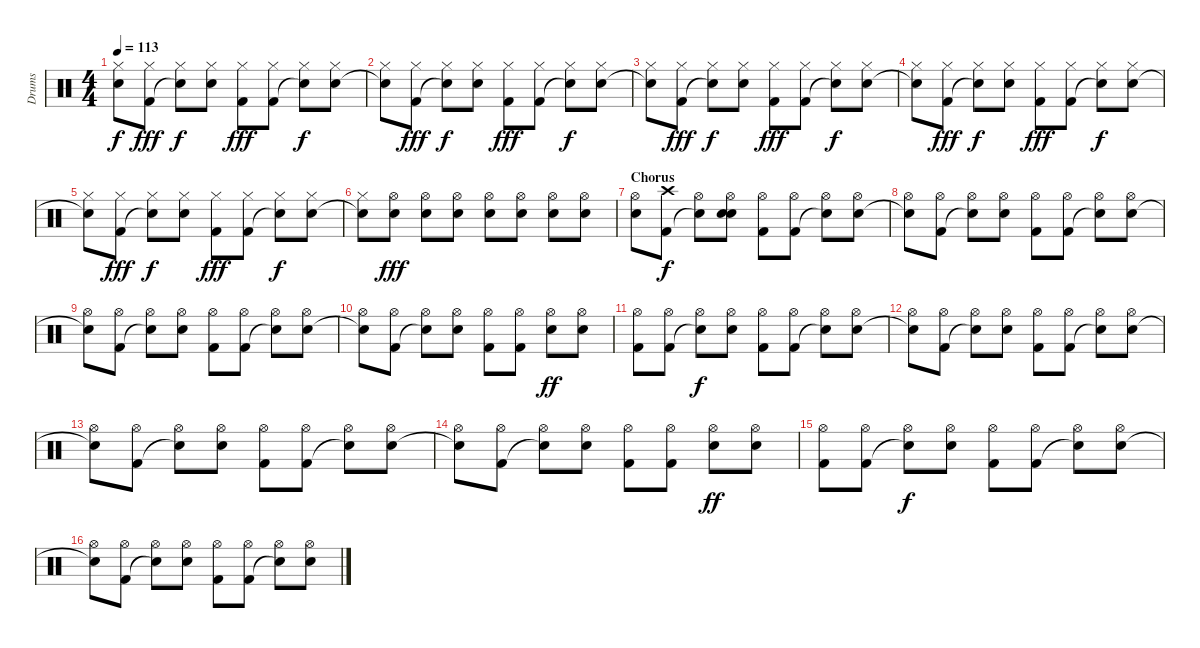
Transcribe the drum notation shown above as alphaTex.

\track ("Drums" "Drums") {instrument percussion}
\staff {score}
\articulation defaults
\ts (4 4)
\tempo 113
\clef neutral
\ks c
("Snare (hit)"{t} "Hi-Hat (closed)").8{dy f} ("Kick (hit) 2" "Hi-Hat (closed)").8{dy fff} ("Snare (hit)"{t} "Hi-Hat (closed)").8{dy f} ("Snare (hit) 2" "Hi-Hat (closed)").8 ("Kick (hit) 2" "Hi-Hat (closed)").8{dy fff} ("Kick (hit) 2" "Hi-Hat (closed)").8 ("Snare (hit)"{t} "Hi-Hat (closed)").8{dy f} ("Snare (hit) 2" "Hi-Hat (closed)").8 |
("Snare (hit)"{t} "Hi-Hat (closed)").8 ("Kick (hit) 2" "Hi-Hat (closed)").8{dy fff} ("Snare (hit)"{t} "Hi-Hat (closed)").8{dy f} ("Snare (hit) 2" "Hi-Hat (closed)").8 ("Kick (hit) 2" "Hi-Hat (closed)").8{dy fff} ("Kick (hit) 2" "Hi-Hat (closed)").8 ("Snare (hit)"{t} "Hi-Hat (closed)").8{dy f} ("Snare (hit) 2" "Hi-Hat (closed)").8 |
("Snare (hit)"{t} "Hi-Hat (closed)").8 ("Kick (hit) 2" "Hi-Hat (closed)").8{dy fff} ("Snare (hit)"{t} "Hi-Hat (closed)").8{dy f} ("Snare (hit) 2" "Hi-Hat (closed)").8 ("Kick (hit) 2" "Hi-Hat (closed)").8{dy fff} ("Kick (hit) 2" "Hi-Hat (closed)").8 ("Snare (hit)"{t} "Hi-Hat (closed)").8{dy f} ("Snare (hit) 2" "Hi-Hat (closed)").8 |
("Snare (hit)"{t} "Hi-Hat (closed)").8 ("Kick (hit) 2" "Hi-Hat (closed)").8{dy fff} ("Snare (hit)"{t} "Hi-Hat (closed)").8{dy f} ("Snare (hit) 2" "Hi-Hat (closed)").8 ("Kick (hit) 2" "Hi-Hat (closed)").8{dy fff} ("Kick (hit) 2" "Hi-Hat (closed)").8 ("Snare (hit)"{t} "Hi-Hat (closed)").8{dy f} ("Snare (hit) 2" "Hi-Hat (closed)").8 |
("Snare (hit)"{t} "Hi-Hat (closed)").8 ("Kick (hit) 2" "Hi-Hat (closed)").8{dy fff} ("Snare (hit)"{t} "Hi-Hat (closed)").8{dy f} ("Snare (hit) 2" "Hi-Hat (closed)").8 ("Kick (hit) 2" "Hi-Hat (closed)").8{dy fff} ("Kick (hit) 2" "Hi-Hat (closed)").8 ("Snare (hit)"{t} "Hi-Hat (closed)").8{dy f} ("Snare (hit) 2" "Hi-Hat (closed)").8 |
("Snare (hit) 2"{t} "Hi-Hat (closed)").8 ("Snare (hit) 2" "Hi-Hat (open)").8{dy fff} ("Snare (hit) 2" "Hi-Hat (open)").8 ("Snare (hit) 2" "Hi-Hat (open)").8 ("Snare (hit) 2" "Hi-Hat (open)").8 ("Snare (hit) 2" "Hi-Hat (open)").8 ("Snare (hit) 2" "Hi-Hat (open)").8 ("Snare (hit) 2" "Hi-Hat (open)").8 |
\section ("" "Chorus")
("Snare (hit) 2" "Hi-Hat (open)").8 ("Kick (hit) 2" "Crash high (hit)").8{dy f} ("Snare (hit)"{t} "Hi-Hat (open)").8 ("Snare (hit) 2" "Hi-Hat (open)" "Snare (hit)").8 ("Kick (hit) 2" "Hi-Hat (open)").8 ("Kick (hit) 2" "Hi-Hat (open)").8 ("Snare (hit)"{t} "Hi-Hat (open)").8 ("Snare (hit) 2" "Hi-Hat (open)").8 |
("Snare (hit)"{t} "Hi-Hat (open)").8 ("Kick (hit) 2" "Hi-Hat (open)").8 ("Snare (hit)"{t} "Hi-Hat (open)").8 ("Snare (hit) 2" "Hi-Hat (open)").8 ("Kick (hit) 2" "Hi-Hat (open)").8 ("Kick (hit) 2" "Hi-Hat (open)").8 ("Snare (hit)"{t} "Hi-Hat (open)").8 ("Snare (hit) 2" "Hi-Hat (open)").8 |
("Snare (hit)"{t} "Hi-Hat (open)").8 ("Kick (hit) 2" "Hi-Hat (open)").8 ("Snare (hit)"{t} "Hi-Hat (open)").8 ("Snare (hit) 2" "Hi-Hat (open)").8 ("Kick (hit) 2" "Hi-Hat (open)").8 ("Kick (hit) 2" "Hi-Hat (open)").8 ("Snare (hit)"{t} "Hi-Hat (open)").8 ("Snare (hit) 2" "Hi-Hat (open)").8 |
("Snare (hit)"{t} "Hi-Hat (open)").8 ("Kick (hit) 2" "Hi-Hat (open)").8 ("Snare (hit)"{t} "Hi-Hat (open)").8 ("Snare (hit) 2" "Hi-Hat (open)").8 ("Kick (hit) 2" "Hi-Hat (open)").8 ("Kick (hit) 2" "Hi-Hat (open)").8 ("Snare (hit) 2" "Hi-Hat (open)").8{dy ff} ("Snare (hit) 2" "Hi-Hat (open)").8 |
("Kick (hit) 2" "Hi-Hat (open)").8 ("Kick (hit) 2" "Hi-Hat (open)").8 ("Snare (hit)"{t} "Hi-Hat (open)").8{dy f} ("Snare (hit) 2" "Hi-Hat (open)").8 ("Kick (hit) 2" "Hi-Hat (open)").8 ("Kick (hit) 2" "Hi-Hat (open)").8 ("Snare (hit)"{t} "Hi-Hat (open)").8 ("Snare (hit) 2" "Hi-Hat (open)").8 |
("Snare (hit)"{t} "Hi-Hat (open)").8 ("Kick (hit) 2" "Hi-Hat (open)").8 ("Snare (hit)"{t} "Hi-Hat (open)").8 ("Snare (hit) 2" "Hi-Hat (open)").8 ("Kick (hit) 2" "Hi-Hat (open)").8 ("Kick (hit) 2" "Hi-Hat (open)").8 ("Snare (hit)"{t} "Hi-Hat (open)").8 ("Snare (hit) 2" "Hi-Hat (open)").8 |
("Snare (hit)"{t} "Hi-Hat (open)").8 ("Kick (hit) 2" "Hi-Hat (open)").8 ("Snare (hit)"{t} "Hi-Hat (open)").8 ("Snare (hit) 2" "Hi-Hat (open)").8 ("Kick (hit) 2" "Hi-Hat (open)").8 ("Kick (hit) 2" "Hi-Hat (open)").8 ("Snare (hit)"{t} "Hi-Hat (open)").8 ("Snare (hit) 2" "Hi-Hat (open)").8 |
("Snare (hit)"{t} "Hi-Hat (open)").8 ("Kick (hit) 2" "Hi-Hat (open)").8 ("Snare (hit)"{t} "Hi-Hat (open)").8 ("Snare (hit) 2" "Hi-Hat (open)").8 ("Kick (hit) 2" "Hi-Hat (open)").8 ("Kick (hit) 2" "Hi-Hat (open)").8 ("Snare (hit) 2" "Hi-Hat (open)").8{dy ff} ("Snare (hit) 2" "Hi-Hat (open)").8 |
("Kick (hit) 2" "Hi-Hat (open)").8 ("Kick (hit) 2" "Hi-Hat (open)").8 ("Snare (hit)"{t} "Hi-Hat (open)").8{dy f} ("Snare (hit) 2" "Hi-Hat (open)").8 ("Kick (hit) 2" "Hi-Hat (open)").8 ("Kick (hit) 2" "Hi-Hat (open)").8 ("Snare (hit)"{t} "Hi-Hat (open)").8 ("Snare (hit) 2" "Hi-Hat (open)").8 |
("Snare (hit)"{t} "Hi-Hat (open)").8 ("Kick (hit) 2" "Hi-Hat (open)").8 ("Snare (hit)"{t} "Hi-Hat (open)").8 ("Snare (hit) 2" "Hi-Hat (open)").8 ("Kick (hit) 2" "Hi-Hat (open)").8 ("Kick (hit) 2" "Hi-Hat (open)").8 ("Snare (hit)"{t} "Hi-Hat (open)").8 ("Snare (hit) 2" "Hi-Hat (open)").8
